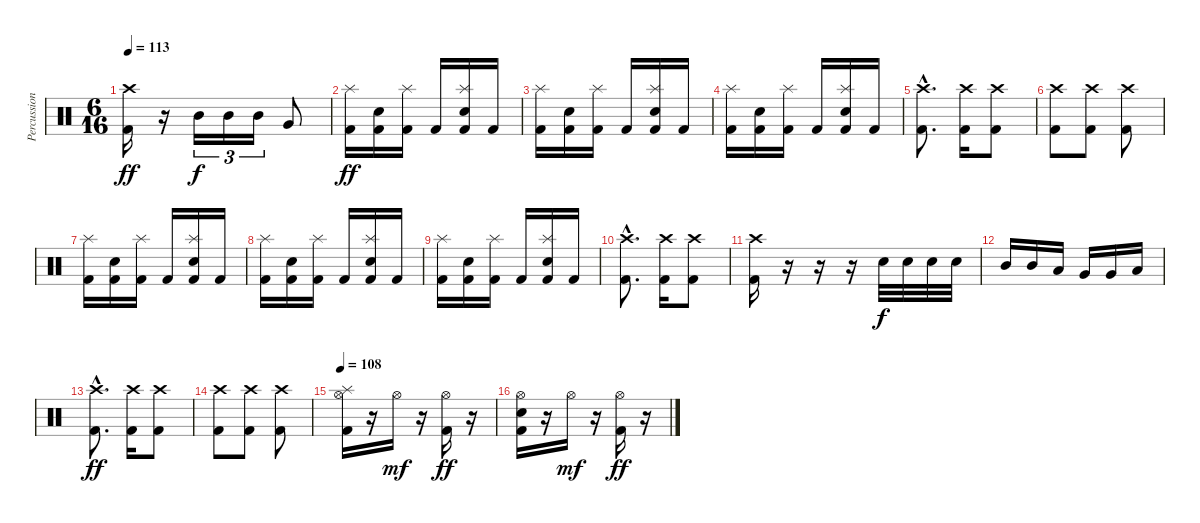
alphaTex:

\track ("Percussion" "Percussion") {instrument percussion}
\staff {score}
\articulation defaults
\ts (6 16)
\tempo 113
\clef neutral
\ks c
("Crash high (hit)" "Kick (hit) 2").16{dy ff} r.16 "Mid Tom (hit)".16{tu (3 2) dy f} "Mid Tom (hit)".16{tu (3 2)} "Mid Tom (hit)".16{tu (3 2)} "Very Low Tom (hit)".8 |
("Splash (hit)" "Kick (hit) 2").16{dy ff} ("Electric Snare (hit)" "Kick (hit) 2").16 ("Splash (hit)" "Kick (hit) 2").16 "Kick (hit) 2".16 ("Splash (hit)" "Electric Snare (hit)" "Kick (hit) 2").16 "Kick (hit) 2".16 |
("Splash (hit)" "Kick (hit) 2").16 ("Electric Snare (hit)" "Kick (hit) 2").16 ("Splash (hit)" "Kick (hit) 2").16 "Kick (hit) 2".16 ("Splash (hit)" "Electric Snare (hit)" "Kick (hit) 2").16 "Kick (hit) 2".16 |
("Splash (hit)" "Kick (hit) 2").16 ("Electric Snare (hit)" "Kick (hit) 2").16 ("Splash (hit)" "Kick (hit) 2").16 "Kick (hit) 2".16 ("Splash (hit)" "Electric Snare (hit)" "Kick (hit) 2").16 "Kick (hit) 2".16 |
("Crash high (hit)"{hac} "Kick (hit) 2"{hac}).8{d} ("Crash high (hit)" "Kick (hit) 2").16 ("Crash high (hit)" "Kick (hit) 2").8 |
("Crash high (hit)" "Kick (hit) 2").8 ("Crash high (hit)" "Kick (hit) 2").8 ("Crash high (hit)" "Kick (hit) 2").8 |
("Splash (hit)" "Kick (hit) 2").16 ("Electric Snare (hit)" "Kick (hit) 2").16 ("Splash (hit)" "Kick (hit) 2").16 "Kick (hit) 2".16 ("Splash (hit)" "Electric Snare (hit)" "Kick (hit) 2").16 "Kick (hit) 2".16 |
("Splash (hit)" "Kick (hit) 2").16 ("Electric Snare (hit)" "Kick (hit) 2").16 ("Splash (hit)" "Kick (hit) 2").16 "Kick (hit) 2".16 ("Splash (hit)" "Electric Snare (hit)" "Kick (hit) 2").16 "Kick (hit) 2".16 |
("Splash (hit)" "Kick (hit) 2").16 ("Electric Snare (hit)" "Kick (hit) 2").16 ("Splash (hit)" "Kick (hit) 2").16 "Kick (hit) 2".16 ("Splash (hit)" "Electric Snare (hit)" "Kick (hit) 2").16 "Kick (hit) 2".16 |
("Crash high (hit)"{hac} "Kick (hit) 2"{hac}).8{d} ("Crash high (hit)" "Kick (hit) 2").16 ("Crash high (hit)" "Kick (hit) 2").8 |
("Crash high (hit)" "Kick (hit) 2").16 r.16 r.16 r.16 "Electric Snare (hit)".32{dy f} "Electric Snare (hit)".32 "Electric Snare (hit)".32 "Electric Snare (hit)".32 |
"Mid Tom (hit)".16 "Mid Tom (hit)".16 "Low Tom (hit)".16 "Very Low Tom (hit)".16 "Very Low Tom (hit)".16 "Low Floor Tom (hit)".16 |
("Crash high (hit)"{hac} "Kick (hit) 2"{hac}).8{d dy ff} ("Crash high (hit)" "Kick (hit) 2").16 ("Crash high (hit)" "Kick (hit) 2").8 |
("Crash high (hit)" "Kick (hit) 2").8 ("Crash high (hit)" "Kick (hit) 2").8 ("Crash high (hit)" "Kick (hit) 2").8 |
\tempo 108
("Splash (hit)" "Hi-Hat (open)" "Kick (hit) 2").16 r.16 "Hi-Hat (open)".16{dy mf} r.16 ("Hi-Hat (open)" "Kick (hit) 2").16{dy ff} r.16 |
("Hi-Hat (open)" "Electric Snare (hit)" "Kick (hit) 2").16 r.16 "Hi-Hat (open)".16{dy mf} r.16 ("Hi-Hat (open)" "Kick (hit) 2").16{dy ff} r.16
